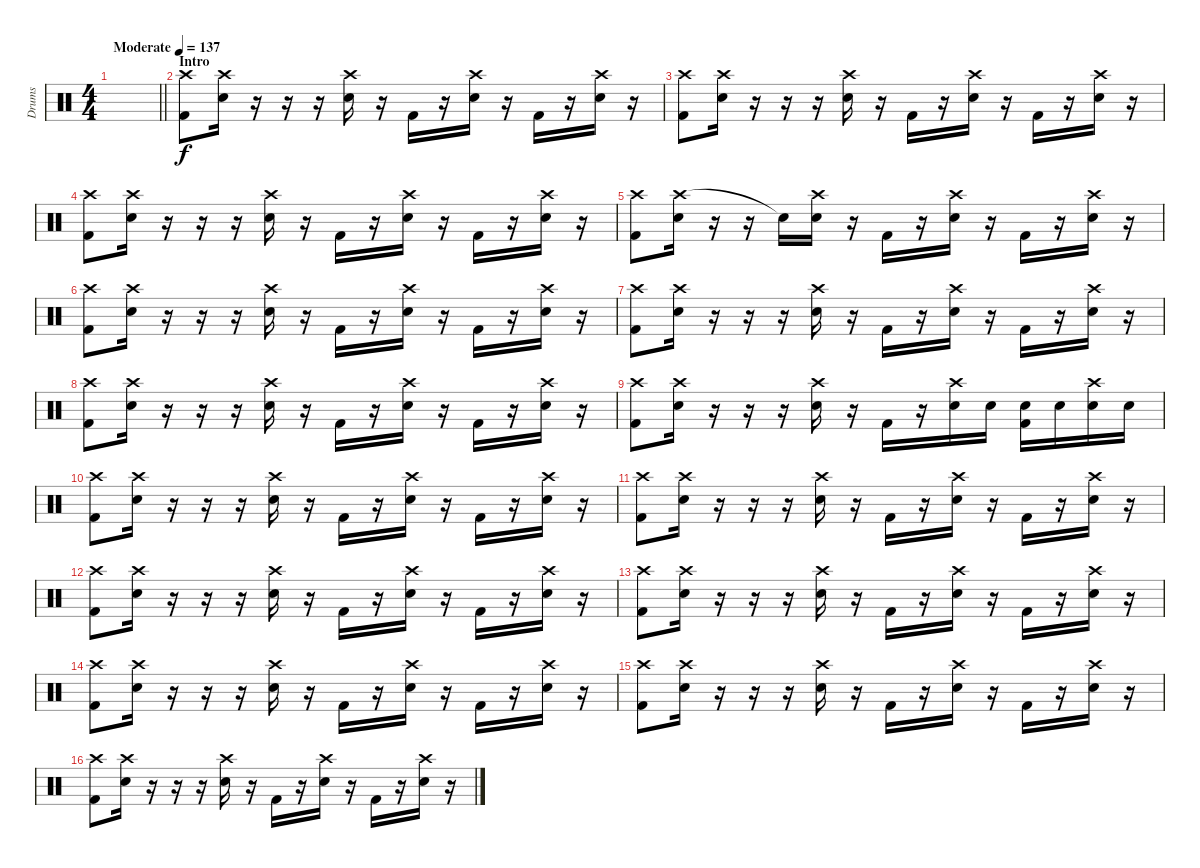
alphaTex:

\track ("Drums" "Drums") {instrument percussion}
\staff {score}
\articulation defaults
\ts (4 4)
\tempo (137 "Moderate")
\clef neutral
\barLineRight lightlight
\ks c
|
\section ("" "Intro")
("Crash high (hit)" "Kick (hit) 2").8 ("Crash high (hit)" "Electric Snare (hit)").16 r.16 r.16 r.16 ("Crash high (hit)" "Electric Snare (hit)").16 r.16 "Kick (hit) 2".16 r.16 ("Crash high (hit)" "Electric Snare (hit)").16 r.16 "Kick (hit) 2".16 r.16 ("Crash high (hit)" "Electric Snare (hit)").16 r.16 |
("Crash high (hit)" "Kick (hit) 2").8 ("Crash high (hit)" "Electric Snare (hit)").16 r.16 r.16 r.16 ("Crash high (hit)" "Electric Snare (hit)").16 r.16 "Kick (hit) 2".16 r.16 ("Crash high (hit)" "Electric Snare (hit)").16 r.16 "Kick (hit) 2".16 r.16 ("Crash high (hit)" "Electric Snare (hit)").16 r.16 |
("Crash high (hit)" "Kick (hit) 2").8 ("Crash high (hit)" "Electric Snare (hit)").16 r.16 r.16 r.16 ("Crash high (hit)" "Electric Snare (hit)").16 r.16 "Kick (hit) 2".16 r.16 ("Crash high (hit)" "Electric Snare (hit)").16 r.16 "Kick (hit) 2".16 r.16 ("Crash high (hit)" "Electric Snare (hit)").16 r.16 |
("Crash high (hit)" "Kick (hit) 2").8 ("Crash high (hit)" "Electric Snare (hit)").16 r.16 r.16 "Snare (hit)"{t}.16 ("Crash high (hit)" "Electric Snare (hit)").16 r.16 "Kick (hit) 2".16 r.16 ("Crash high (hit)" "Electric Snare (hit)").16 r.16 "Kick (hit) 2".16 r.16 ("Crash high (hit)" "Electric Snare (hit)").16 r.16 |
("Crash high (hit)" "Kick (hit) 2").8 ("Crash high (hit)" "Electric Snare (hit)").16 r.16 r.16 r.16 ("Crash high (hit)" "Electric Snare (hit)").16 r.16 "Kick (hit) 2".16 r.16 ("Crash high (hit)" "Electric Snare (hit)").16 r.16 "Kick (hit) 2".16 r.16 ("Crash high (hit)" "Electric Snare (hit)").16 r.16 |
("Crash high (hit)" "Kick (hit) 2").8 ("Crash high (hit)" "Electric Snare (hit)").16 r.16 r.16 r.16 ("Crash high (hit)" "Electric Snare (hit)").16 r.16 "Kick (hit) 2".16 r.16 ("Crash high (hit)" "Electric Snare (hit)").16 r.16 "Kick (hit) 2".16 r.16 ("Crash high (hit)" "Electric Snare (hit)").16 r.16 |
("Crash high (hit)" "Kick (hit) 2").8 ("Crash high (hit)" "Electric Snare (hit)").16 r.16 r.16 r.16 ("Crash high (hit)" "Electric Snare (hit)").16 r.16 "Kick (hit) 2".16 r.16 ("Crash high (hit)" "Electric Snare (hit)").16 r.16 "Kick (hit) 2".16 r.16 ("Crash high (hit)" "Electric Snare (hit)").16 r.16 |
("Crash high (hit)" "Kick (hit) 2").8 ("Crash high (hit)" "Electric Snare (hit)").16 r.16 r.16 r.16 ("Crash high (hit)" "Electric Snare (hit)").16 r.16 "Kick (hit) 2".16 r.16 ("Crash high (hit)" "Electric Snare (hit)").16 "Electric Snare (hit)".16 ("Electric Snare (hit)" "Kick (hit) 2").16 "Electric Snare (hit)".16 ("Crash high (hit)" "Electric Snare (hit)").16 "Electric Snare (hit)".16 |
("Crash high (hit)" "Kick (hit) 2").8 ("Crash high (hit)" "Electric Snare (hit)").16 r.16 r.16 r.16 ("Crash high (hit)" "Electric Snare (hit)").16 r.16 "Kick (hit) 2".16 r.16 ("Crash high (hit)" "Electric Snare (hit)").16 r.16 "Kick (hit) 2".16 r.16 ("Crash high (hit)" "Electric Snare (hit)").16 r.16 |
("Crash high (hit)" "Kick (hit) 2").8 ("Crash high (hit)" "Electric Snare (hit)").16 r.16 r.16 r.16 ("Crash high (hit)" "Electric Snare (hit)").16 r.16 "Kick (hit) 2".16 r.16 ("Crash high (hit)" "Electric Snare (hit)").16 r.16 "Kick (hit) 2".16 r.16 ("Crash high (hit)" "Electric Snare (hit)").16 r.16 |
("Crash high (hit)" "Kick (hit) 2").8 ("Crash high (hit)" "Electric Snare (hit)").16 r.16 r.16 r.16 ("Crash high (hit)" "Electric Snare (hit)").16 r.16 "Kick (hit) 2".16 r.16 ("Crash high (hit)" "Electric Snare (hit)").16 r.16 "Kick (hit) 2".16 r.16 ("Crash high (hit)" "Electric Snare (hit)").16 r.16 |
("Crash high (hit)" "Kick (hit) 2").8 ("Crash high (hit)" "Electric Snare (hit)").16 r.16 r.16 r.16 ("Crash high (hit)" "Electric Snare (hit)").16 r.16 "Kick (hit) 2".16 r.16 ("Crash high (hit)" "Electric Snare (hit)").16 r.16 "Kick (hit) 2".16 r.16 ("Crash high (hit)" "Electric Snare (hit)").16 r.16 |
("Crash high (hit)" "Kick (hit) 2").8 ("Crash high (hit)" "Electric Snare (hit)").16 r.16 r.16 r.16 ("Crash high (hit)" "Electric Snare (hit)").16 r.16 "Kick (hit) 2".16 r.16 ("Crash high (hit)" "Electric Snare (hit)").16 r.16 "Kick (hit) 2".16 r.16 ("Crash high (hit)" "Electric Snare (hit)").16 r.16 |
("Crash high (hit)" "Kick (hit) 2").8 ("Crash high (hit)" "Electric Snare (hit)").16 r.16 r.16 r.16 ("Crash high (hit)" "Electric Snare (hit)").16 r.16 "Kick (hit) 2".16 r.16 ("Crash high (hit)" "Electric Snare (hit)").16 r.16 "Kick (hit) 2".16 r.16 ("Crash high (hit)" "Electric Snare (hit)").16 r.16 |
("Crash high (hit)" "Kick (hit) 2").8 ("Crash high (hit)" "Electric Snare (hit)").16 r.16 r.16 r.16 ("Crash high (hit)" "Electric Snare (hit)").16 r.16 "Kick (hit) 2".16 r.16 ("Crash high (hit)" "Electric Snare (hit)").16 r.16 "Kick (hit) 2".16 r.16 ("Crash high (hit)" "Electric Snare (hit)").16 r.16
